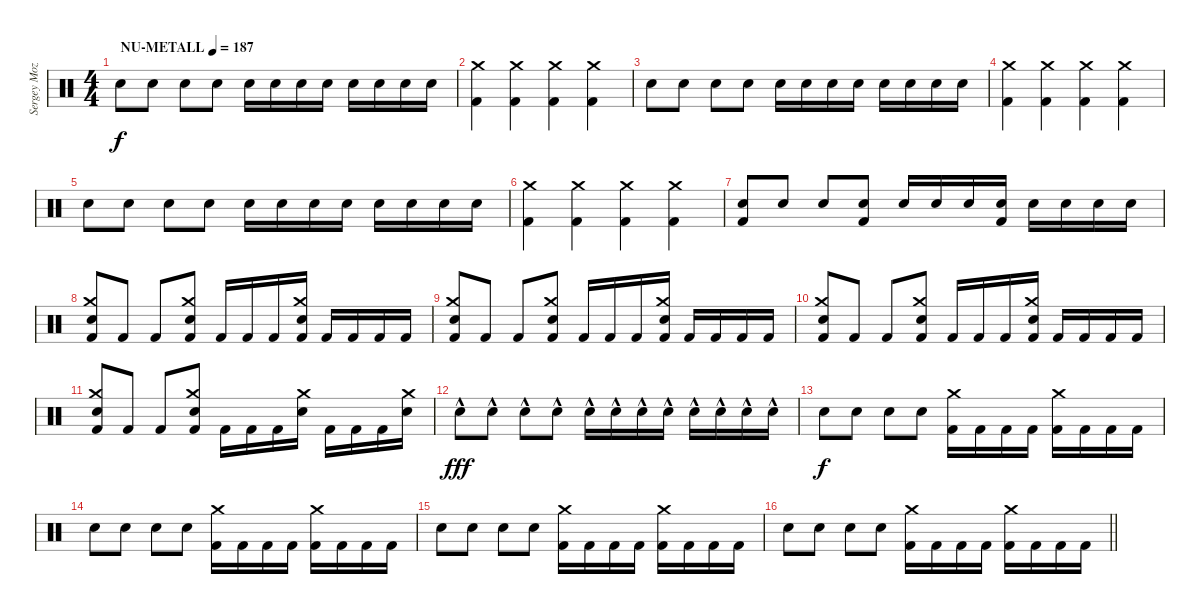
\track ("Sergey Mozalev " "Sergey Moz") {instrument percussion}
\staff {score}
\articulation defaults
\ts (4 4)
\tempo (187 "NU-METALL")
\clef neutral
\ks c "Electric Snare (hit)".8{dy f} "Electric Snare (hit)".8 "Electric Snare (hit)".8 "Electric Snare (hit)".8 "Electric Snare (hit)".16 "Electric Snare (hit)".16 "Electric Snare (hit)".16 "Electric Snare (hit)".16 "Electric Snare (hit)".16 "Electric Snare (hit)".16 "Electric Snare (hit)".16 "Electric Snare (hit)".16
|
("Crash medium (hit)" "Kick (hit) 2").4 ("Crash medium (hit)" "Kick (hit) 2").4 ("Crash medium (hit)" "Kick (hit) 2").4 ("Crash medium (hit)" "Kick (hit) 2").4 |
"Electric Snare (hit)".8 "Electric Snare (hit)".8 "Electric Snare (hit)".8 "Electric Snare (hit)".8 "Electric Snare (hit)".16 "Electric Snare (hit)".16 "Electric Snare (hit)".16 "Electric Snare (hit)".16 "Electric Snare (hit)".16 "Electric Snare (hit)".16 "Electric Snare (hit)".16 "Electric Snare (hit)".16 |
("Crash medium (hit)" "Kick (hit) 2").4 ("Crash medium (hit)" "Kick (hit) 2").4 ("Crash medium (hit)" "Kick (hit) 2").4 ("Crash medium (hit)" "Kick (hit) 2").4 |
"Electric Snare (hit)".8 "Electric Snare (hit)".8 "Electric Snare (hit)".8 "Electric Snare (hit)".8 "Electric Snare (hit)".16 "Electric Snare (hit)".16 "Electric Snare (hit)".16 "Electric Snare (hit)".16 "Electric Snare (hit)".16 "Electric Snare (hit)".16 "Electric Snare (hit)".16 "Electric Snare (hit)".16 |
("Crash medium (hit)" "Kick (hit) 2").4 ("Crash medium (hit)" "Kick (hit) 2").4 ("Crash medium (hit)" "Kick (hit) 2").4 ("Crash medium (hit)" "Kick (hit) 2").4 |
("Kick (hit) 2" "Electric Snare (hit)").8 "Electric Snare (hit)".8 "Electric Snare (hit)".8 ("Kick (hit) 2" "Electric Snare (hit)").8 "Electric Snare (hit)".16 "Electric Snare (hit)".16 "Electric Snare (hit)".16 ("Kick (hit) 2" "Electric Snare (hit)").16 "Electric Snare (hit)".16 "Electric Snare (hit)".16 "Electric Snare (hit)".16 "Electric Snare (hit)".16 |
("Electric Snare (hit)" "Crash medium (hit)" "Kick (hit) 2").8 "Kick (hit) 2".8 "Kick (hit) 2".8 ("Electric Snare (hit)" "Crash medium (hit)" "Kick (hit) 2").8 "Kick (hit) 2".16 "Kick (hit) 2".16 "Kick (hit) 2".16 ("Electric Snare (hit)" "Crash medium (hit)" "Kick (hit) 2").16 "Kick (hit) 2".16 "Kick (hit) 2".16 "Kick (hit) 2".16 "Kick (hit) 2".16 |
("Electric Snare (hit)" "Crash medium (hit)" "Kick (hit) 2").8 "Kick (hit) 2".8 "Kick (hit) 2".8 ("Electric Snare (hit)" "Crash medium (hit)" "Kick (hit) 2").8 "Kick (hit) 2".16 "Kick (hit) 2".16 "Kick (hit) 2".16 ("Electric Snare (hit)" "Crash medium (hit)" "Kick (hit) 2").16 "Kick (hit) 2".16 "Kick (hit) 2".16 "Kick (hit) 2".16 "Kick (hit) 2".16 |
("Electric Snare (hit)" "Crash medium (hit)" "Kick (hit) 2").8 "Kick (hit) 2".8 "Kick (hit) 2".8 ("Electric Snare (hit)" "Crash medium (hit)" "Kick (hit) 2").8 "Kick (hit) 2".16 "Kick (hit) 2".16 "Kick (hit) 2".16 ("Electric Snare (hit)" "Crash medium (hit)" "Kick (hit) 2").16 "Kick (hit) 2".16 "Kick (hit) 2".16 "Kick (hit) 2".16 "Kick (hit) 2".16 |
("Electric Snare (hit)" "Crash medium (hit)" "Kick (hit) 2").8 "Kick (hit) 2".8 "Kick (hit) 2".8 ("Electric Snare (hit)" "Crash medium (hit)" "Kick (hit) 2").8 "Kick (hit) 2".16 "Kick (hit) 2".16 "Kick (hit) 2".16 ("Crash medium (hit)" "Electric Snare (hit)").16 "Kick (hit) 2".16 "Kick (hit) 2".16 "Kick (hit) 2".16 ("Crash medium (hit)" "Electric Snare (hit)").16 |
"Electric Snare (hit)"{hac}.8{dy fff} "Electric Snare (hit)"{hac}.8 "Electric Snare (hit)"{hac}.8 "Electric Snare (hit)"{hac}.8 "Electric Snare (hit)"{hac}.16 "Electric Snare (hit)"{hac}.16 "Electric Snare (hit)"{hac}.16 "Electric Snare (hit)"{hac}.16 "Electric Snare (hit)"{hac}.16 "Electric Snare (hit)"{hac}.16 "Electric Snare (hit)"{hac}.16 "Electric Snare (hit)"{hac}.16 |
"Electric Snare (hit)".8{dy f} "Electric Snare (hit)".8 "Electric Snare (hit)".8 "Electric Snare (hit)".8 ("Crash medium (hit)" "Kick (hit) 2").16 "Kick (hit) 2".16 "Kick (hit) 2".16 "Kick (hit) 2".16 ("Crash medium (hit)" "Kick (hit) 2").16 "Kick (hit) 2".16 "Kick (hit) 2".16 "Kick (hit) 2".16 |
"Electric Snare (hit)".8 "Electric Snare (hit)".8 "Electric Snare (hit)".8 "Electric Snare (hit)".8 ("Crash medium (hit)" "Kick (hit) 2").16 "Kick (hit) 2".16 "Kick (hit) 2".16 "Kick (hit) 2".16 ("Crash medium (hit)" "Kick (hit) 2").16 "Kick (hit) 2".16 "Kick (hit) 2".16 "Kick (hit) 2".16 |
"Electric Snare (hit)".8 "Electric Snare (hit)".8 "Electric Snare (hit)".8 "Electric Snare (hit)".8 ("Crash medium (hit)" "Kick (hit) 2").16 "Kick (hit) 2".16 "Kick (hit) 2".16 "Kick (hit) 2".16 ("Crash medium (hit)" "Kick (hit) 2").16 "Kick (hit) 2".16 "Kick (hit) 2".16 "Kick (hit) 2".16 |
\barLineRight lightlight "Electric Snare (hit)".8 "Electric Snare (hit)".8 "Electric Snare (hit)".8 "Electric Snare (hit)".8
("Crash medium (hit)" "Kick (hit) 2").16 "Kick (hit) 2".16 "Kick (hit) 2".16 "Kick (hit) 2".16 ("Crash medium (hit)" "Kick (hit) 2").16 "Kick (hit) 2".16 "Kick (hit) 2".16 "Kick (hit) 2".16
